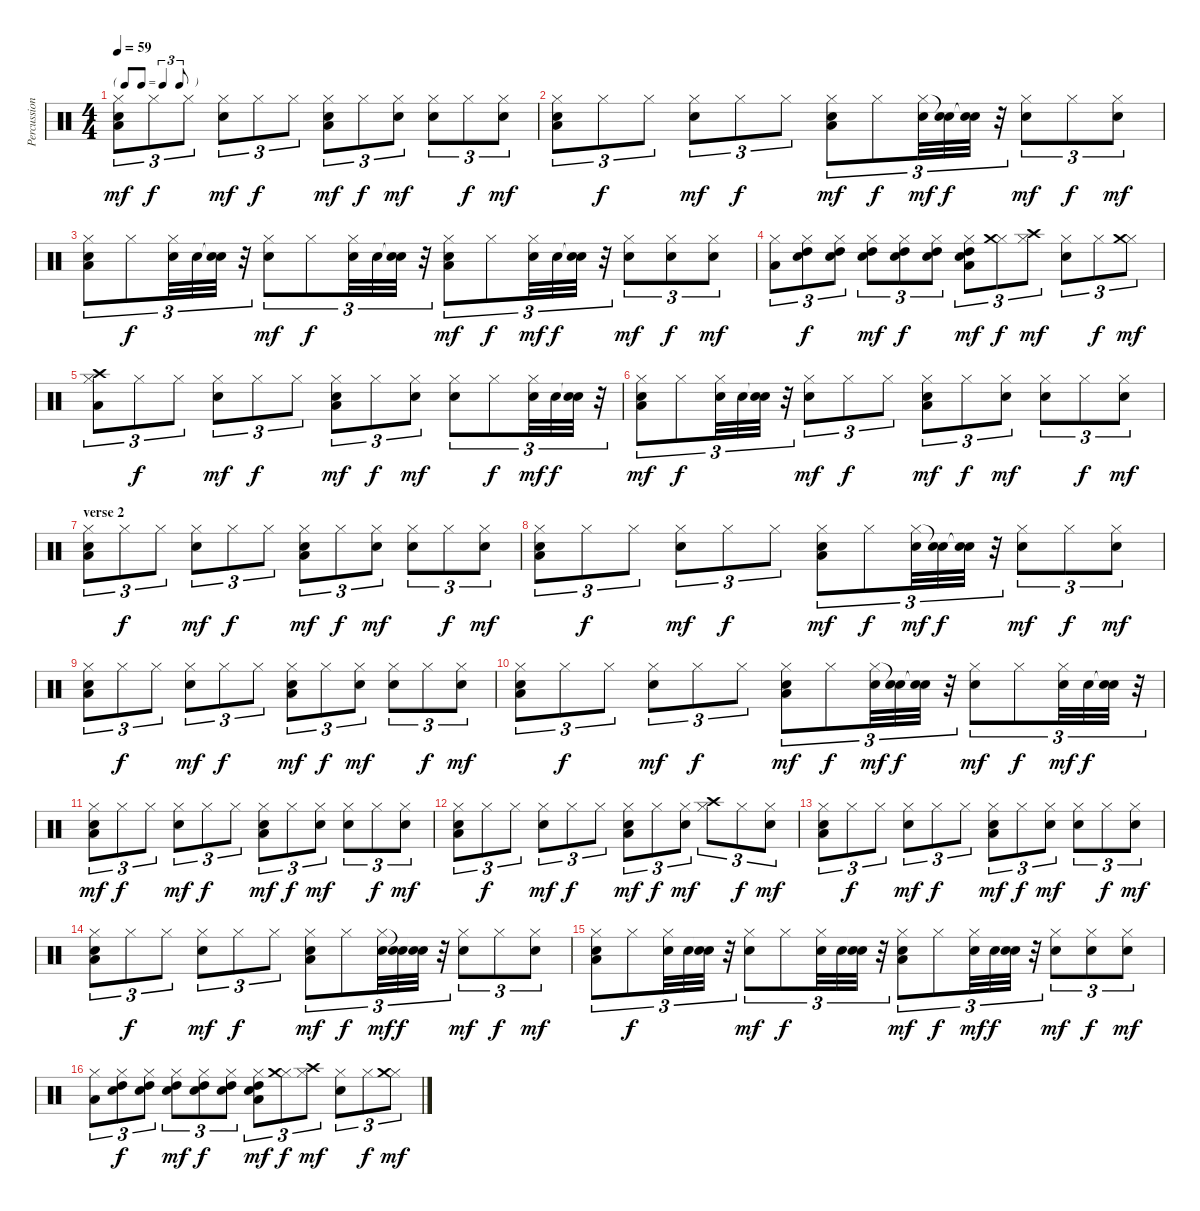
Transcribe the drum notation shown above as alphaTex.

\track ("Percussions (Billasse)" "Percussion") {instrument percussion}
\staff {score}
\articulation defaults
\ts (4 4)
\tf triplet8th
\tempo 59
\clef neutral
\ks c
("Hi-Hat (closed)" "Low Floor Tom (hit)" "Electric Snare (hit)").8{tu (3 2) dy mf} "Hi-Hat (closed)".8{tu (3 2) dy f} "Hi-Hat (closed)".8{tu (3 2)} ("Hi-Hat (closed)" "Electric Snare (hit)").8{tu (3 2) dy mf} "Hi-Hat (closed)".8{tu (3 2) dy f} "Hi-Hat (closed)".8{tu (3 2)} ("Hi-Hat (closed)" "Low Floor Tom (hit)" "Electric Snare (hit)").8{tu (3 2) dy mf} "Hi-Hat (closed)".8{tu (3 2) dy f} ("Hi-Hat (closed)" "Electric Snare (hit)").8{tu (3 2) dy mf} ("Hi-Hat (closed)" "Electric Snare (hit)").8{tu (3 2)} "Hi-Hat (closed)".8{tu (3 2) dy f} ("Hi-Hat (closed)" "Electric Snare (hit)").8{tu (3 2) dy mf} |
("Hi-Hat (closed)" "Low Floor Tom (hit)" "Electric Snare (hit)").8{tu (3 2)} "Hi-Hat (closed)".8{tu (3 2) dy f} "Hi-Hat (closed)".8{tu (3 2)} ("Hi-Hat (closed)" "Electric Snare (hit)").8{tu (3 2) dy mf} "Hi-Hat (closed)".8{tu (3 2) dy f} "Hi-Hat (closed)".8{tu (3 2)} ("Hi-Hat (closed)" "Low Floor Tom (hit)" "Electric Snare (hit)").8{tu (3 2) dy mf} "Hi-Hat (closed)".8{tu (3 2) dy f} ("Hi-Hat (closed)" "Electric Snare (hit)").32{tu (3 2) dy mf} ("Snare (hit)"{t} "Electric Snare (hit)").32{tu (3 2) dy f} ("Snare (hit)"{t} "Electric Snare (hit)").32{tu (3 2)} r.32{tu (3 2)} ("Hi-Hat (closed)" "Electric Snare (hit)").8{tu (3 2) dy mf} "Hi-Hat (closed)".8{tu (3 2) dy f} ("Hi-Hat (closed)" "Electric Snare (hit)").8{tu (3 2) dy mf} |
("Hi-Hat (closed)" "Low Floor Tom (hit)" "Electric Snare (hit)").8{tu (3 2)} "Hi-Hat (closed)".8{tu (3 2) dy f} ("Hi-Hat (closed)" "Electric Snare (hit)").32{tu (3 2)} "Electric Snare (hit)".32{tu (3 2)} ("Snare (hit)"{t} "Electric Snare (hit)").32{tu (3 2)} r.32{tu (3 2)} ("Hi-Hat (closed)" "Electric Snare (hit)").8{tu (3 2) dy mf} "Hi-Hat (closed)".8{tu (3 2) dy f} ("Hi-Hat (closed)" "Electric Snare (hit)").32{tu (3 2)} "Electric Snare (hit)".32{tu (3 2)} ("Snare (hit)"{t} "Electric Snare (hit)").32{tu (3 2)} r.32{tu (3 2)} ("Hi-Hat (closed)" "Low Floor Tom (hit)" "Electric Snare (hit)").8{tu (3 2) dy mf} "Hi-Hat (closed)".8{tu (3 2) dy f} ("Hi-Hat (closed)" "Electric Snare (hit)").32{tu (3 2) dy mf} "Electric Snare (hit)".32{tu (3 2) dy f} ("Snare (hit)"{t} "Electric Snare (hit)").32{tu (3 2)} r.32{tu (3 2)} ("Hi-Hat (closed)" "Electric Snare (hit)").8{tu (3 2) dy mf} ("Hi-Hat (closed)" "Electric Snare (hit)").8{tu (3 2) dy f} ("Hi-Hat (closed)" "Electric Snare (hit)").8{tu (3 2) dy mf} |
("Hi-Hat (closed)" "Low Floor Tom (hit)").8{tu (3 2)} ("Hi-Hat (closed)" "Electric Snare (hit)" "High Tom (hit)").8{tu (3 2) dy f} ("Hi-Hat (closed)" "Electric Snare (hit)" "High Tom (hit)").8{tu (3 2)} ("Hi-Hat (closed)" "Electric Snare (hit)" "High Tom (hit)").8{tu (3 2) dy mf} ("Hi-Hat (closed)" "Electric Snare (hit)" "High Tom (hit)").8{tu (3 2) dy f} ("Hi-Hat (closed)" "Electric Snare (hit)" "High Tom (hit)").8{tu (3 2)} ("Hi-Hat (closed)" "Low Floor Tom (hit)" "Electric Snare (hit)" "High Tom (hit)").8{tu (3 2) dy mf} ("Hi-Hat (closed)" "Crash medium (hit)").8{tu (3 2) dy f} ("Hi-Hat (closed)" "Crash high (hit)").8{tu (3 2) dy mf} ("Hi-Hat (closed)" "Electric Snare (hit)").8{tu (3 2)} "Hi-Hat (closed)".8{tu (3 2) dy f} ("Hi-Hat (closed)" "Crash medium (hit)").8{tu (3 2) dy mf} |
("Hi-Hat (closed)" "Low Floor Tom (hit)" "Crash high (hit)").8{tu (3 2)} "Hi-Hat (closed)".8{tu (3 2) dy f} "Hi-Hat (closed)".8{tu (3 2)} ("Hi-Hat (closed)" "Electric Snare (hit)").8{tu (3 2) dy mf} "Hi-Hat (closed)".8{tu (3 2) dy f} "Hi-Hat (closed)".8{tu (3 2)} ("Hi-Hat (closed)" "Low Floor Tom (hit)" "Electric Snare (hit)").8{tu (3 2) dy mf} "Hi-Hat (closed)".8{tu (3 2) dy f} ("Hi-Hat (closed)" "Electric Snare (hit)").8{tu (3 2) dy mf} ("Hi-Hat (closed)" "Electric Snare (hit)").8{tu (3 2)} "Hi-Hat (closed)".8{tu (3 2) dy f} ("Hi-Hat (closed)" "Electric Snare (hit)").32{tu (3 2) dy mf} "Electric Snare (hit)".32{tu (3 2) dy f} ("Snare (hit)"{t} "Electric Snare (hit)").32{tu (3 2)} r.32{tu (3 2)} |
("Hi-Hat (closed)" "Low Floor Tom (hit)" "Electric Snare (hit)").8{tu (3 2) dy mf} "Hi-Hat (closed)".8{tu (3 2) dy f} ("Hi-Hat (closed)" "Electric Snare (hit)").32{tu (3 2)} "Electric Snare (hit)".32{tu (3 2)} ("Snare (hit)"{t} "Electric Snare (hit)").32{tu (3 2)} r.32{tu (3 2)} ("Hi-Hat (closed)" "Electric Snare (hit)").8{tu (3 2) dy mf} "Hi-Hat (closed)".8{tu (3 2) dy f} "Hi-Hat (closed)".8{tu (3 2)} ("Hi-Hat (closed)" "Low Floor Tom (hit)" "Electric Snare (hit)").8{tu (3 2) dy mf} "Hi-Hat (closed)".8{tu (3 2) dy f} ("Hi-Hat (closed)" "Electric Snare (hit)").8{tu (3 2) dy mf} ("Hi-Hat (closed)" "Electric Snare (hit)").8{tu (3 2)} "Hi-Hat (closed)".8{tu (3 2) dy f} ("Hi-Hat (closed)" "Electric Snare (hit)").8{tu (3 2) dy mf} |
\section ("" "verse 2")
("Hi-Hat (closed)" "Low Floor Tom (hit)" "Electric Snare (hit)").8{tu (3 2)} "Hi-Hat (closed)".8{tu (3 2) dy f} "Hi-Hat (closed)".8{tu (3 2)} ("Hi-Hat (closed)" "Electric Snare (hit)").8{tu (3 2) dy mf} "Hi-Hat (closed)".8{tu (3 2) dy f} "Hi-Hat (closed)".8{tu (3 2)} ("Hi-Hat (closed)" "Low Floor Tom (hit)" "Electric Snare (hit)").8{tu (3 2) dy mf} "Hi-Hat (closed)".8{tu (3 2) dy f} ("Hi-Hat (closed)" "Electric Snare (hit)").8{tu (3 2) dy mf} ("Hi-Hat (closed)" "Electric Snare (hit)").8{tu (3 2)} "Hi-Hat (closed)".8{tu (3 2) dy f} ("Hi-Hat (closed)" "Electric Snare (hit)").8{tu (3 2) dy mf} |
("Hi-Hat (closed)" "Low Floor Tom (hit)" "Electric Snare (hit)").8{tu (3 2)} "Hi-Hat (closed)".8{tu (3 2) dy f} "Hi-Hat (closed)".8{tu (3 2)} ("Hi-Hat (closed)" "Electric Snare (hit)").8{tu (3 2) dy mf} "Hi-Hat (closed)".8{tu (3 2) dy f} "Hi-Hat (closed)".8{tu (3 2)} ("Hi-Hat (closed)" "Low Floor Tom (hit)" "Electric Snare (hit)").8{tu (3 2) dy mf} "Hi-Hat (closed)".8{tu (3 2) dy f} ("Hi-Hat (closed)" "Electric Snare (hit)").32{tu (3 2) dy mf} ("Snare (hit)"{t} "Electric Snare (hit)").32{tu (3 2) dy f} ("Snare (hit)"{t} "Electric Snare (hit)").32{tu (3 2)} r.32{tu (3 2)} ("Hi-Hat (closed)" "Electric Snare (hit)").8{tu (3 2) dy mf} "Hi-Hat (closed)".8{tu (3 2) dy f} ("Hi-Hat (closed)" "Electric Snare (hit)").8{tu (3 2) dy mf} |
("Hi-Hat (closed)" "Low Floor Tom (hit)" "Electric Snare (hit)").8{tu (3 2)} "Hi-Hat (closed)".8{tu (3 2) dy f} "Hi-Hat (closed)".8{tu (3 2)} ("Hi-Hat (closed)" "Electric Snare (hit)").8{tu (3 2) dy mf} "Hi-Hat (closed)".8{tu (3 2) dy f} "Hi-Hat (closed)".8{tu (3 2)} ("Hi-Hat (closed)" "Low Floor Tom (hit)" "Electric Snare (hit)").8{tu (3 2) dy mf} "Hi-Hat (closed)".8{tu (3 2) dy f} ("Hi-Hat (closed)" "Electric Snare (hit)").8{tu (3 2) dy mf} ("Hi-Hat (closed)" "Electric Snare (hit)").8{tu (3 2)} "Hi-Hat (closed)".8{tu (3 2) dy f} ("Hi-Hat (closed)" "Electric Snare (hit)").8{tu (3 2) dy mf} |
("Hi-Hat (closed)" "Low Floor Tom (hit)" "Electric Snare (hit)").8{tu (3 2)} "Hi-Hat (closed)".8{tu (3 2) dy f} "Hi-Hat (closed)".8{tu (3 2)} ("Hi-Hat (closed)" "Electric Snare (hit)").8{tu (3 2) dy mf} "Hi-Hat (closed)".8{tu (3 2) dy f} "Hi-Hat (closed)".8{tu (3 2)} ("Hi-Hat (closed)" "Low Floor Tom (hit)" "Electric Snare (hit)").8{tu (3 2) dy mf} "Hi-Hat (closed)".8{tu (3 2) dy f} ("Hi-Hat (closed)" "Electric Snare (hit)").32{tu (3 2) dy mf} ("Snare (hit)"{t} "Electric Snare (hit)").32{tu (3 2) dy f} ("Snare (hit)"{t} "Electric Snare (hit)").32{tu (3 2)} r.32{tu (3 2)} ("Hi-Hat (closed)" "Electric Snare (hit)").8{tu (3 2) dy mf} "Hi-Hat (closed)".8{tu (3 2) dy f} ("Hi-Hat (closed)" "Electric Snare (hit)").32{tu (3 2) dy mf} "Electric Snare (hit)".32{tu (3 2) dy f} ("Snare (hit)"{t} "Electric Snare (hit)").32{tu (3 2)} r.32{tu (3 2)} |
("Hi-Hat (closed)" "Low Floor Tom (hit)" "Electric Snare (hit)").8{tu (3 2) dy mf} "Hi-Hat (closed)".8{tu (3 2) dy f} "Hi-Hat (closed)".8{tu (3 2)} ("Hi-Hat (closed)" "Electric Snare (hit)").8{tu (3 2) dy mf} "Hi-Hat (closed)".8{tu (3 2) dy f} "Hi-Hat (closed)".8{tu (3 2)} ("Hi-Hat (closed)" "Low Floor Tom (hit)" "Electric Snare (hit)").8{tu (3 2) dy mf} "Hi-Hat (closed)".8{tu (3 2) dy f} ("Hi-Hat (closed)" "Electric Snare (hit)").8{tu (3 2) dy mf} ("Hi-Hat (closed)" "Electric Snare (hit)").8{tu (3 2)} "Hi-Hat (closed)".8{tu (3 2) dy f} ("Hi-Hat (closed)" "Electric Snare (hit)").8{tu (3 2) dy mf} |
("Hi-Hat (closed)" "Low Floor Tom (hit)" "Electric Snare (hit)").8{tu (3 2)} "Hi-Hat (closed)".8{tu (3 2) dy f} "Hi-Hat (closed)".8{tu (3 2)} ("Hi-Hat (closed)" "Electric Snare (hit)").8{tu (3 2) dy mf} "Hi-Hat (closed)".8{tu (3 2) dy f} "Hi-Hat (closed)".8{tu (3 2)} ("Hi-Hat (closed)" "Low Floor Tom (hit)" "Electric Snare (hit)").8{tu (3 2) dy mf} "Hi-Hat (closed)".8{tu (3 2) dy f} ("Hi-Hat (closed)" "Electric Snare (hit)").8{tu (3 2) dy mf} ("Hi-Hat (closed)" "Crash high (hit)").8{tu (3 2)} "Hi-Hat (closed)".8{tu (3 2) dy f} ("Hi-Hat (closed)" "Electric Snare (hit)").8{tu (3 2) dy mf} |
("Hi-Hat (closed)" "Low Floor Tom (hit)" "Electric Snare (hit)").8{tu (3 2)} "Hi-Hat (closed)".8{tu (3 2) dy f} "Hi-Hat (closed)".8{tu (3 2)} ("Hi-Hat (closed)" "Electric Snare (hit)").8{tu (3 2) dy mf} "Hi-Hat (closed)".8{tu (3 2) dy f} "Hi-Hat (closed)".8{tu (3 2)} ("Hi-Hat (closed)" "Low Floor Tom (hit)" "Electric Snare (hit)").8{tu (3 2) dy mf} "Hi-Hat (closed)".8{tu (3 2) dy f} ("Hi-Hat (closed)" "Electric Snare (hit)").8{tu (3 2) dy mf} ("Hi-Hat (closed)" "Electric Snare (hit)").8{tu (3 2)} "Hi-Hat (closed)".8{tu (3 2) dy f} ("Hi-Hat (closed)" "Electric Snare (hit)").8{tu (3 2) dy mf} |
("Hi-Hat (closed)" "Low Floor Tom (hit)" "Electric Snare (hit)").8{tu (3 2)} "Hi-Hat (closed)".8{tu (3 2) dy f} "Hi-Hat (closed)".8{tu (3 2)} ("Hi-Hat (closed)" "Electric Snare (hit)").8{tu (3 2) dy mf} "Hi-Hat (closed)".8{tu (3 2) dy f} "Hi-Hat (closed)".8{tu (3 2)} ("Hi-Hat (closed)" "Low Floor Tom (hit)" "Electric Snare (hit)").8{tu (3 2) dy mf} "Hi-Hat (closed)".8{tu (3 2) dy f} ("Hi-Hat (closed)" "Electric Snare (hit)").32{tu (3 2) dy mf} ("Snare (hit)"{t} "Electric Snare (hit)").32{tu (3 2) dy f} ("Snare (hit)"{t} "Electric Snare (hit)").32{tu (3 2)} r.32{tu (3 2)} ("Hi-Hat (closed)" "Electric Snare (hit)").8{tu (3 2) dy mf} "Hi-Hat (closed)".8{tu (3 2) dy f} ("Hi-Hat (closed)" "Electric Snare (hit)").8{tu (3 2) dy mf} |
("Hi-Hat (closed)" "Low Floor Tom (hit)" "Electric Snare (hit)").8{tu (3 2)} "Hi-Hat (closed)".8{tu (3 2) dy f} ("Hi-Hat (closed)" "Electric Snare (hit)").32{tu (3 2)} "Electric Snare (hit)".32{tu (3 2)} ("Snare (hit)"{t} "Electric Snare (hit)").32{tu (3 2)} r.32{tu (3 2)} ("Hi-Hat (closed)" "Electric Snare (hit)").8{tu (3 2) dy mf} "Hi-Hat (closed)".8{tu (3 2) dy f} ("Hi-Hat (closed)" "Electric Snare (hit)").32{tu (3 2)} "Electric Snare (hit)".32{tu (3 2)} ("Snare (hit)"{t} "Electric Snare (hit)").32{tu (3 2)} r.32{tu (3 2)} ("Hi-Hat (closed)" "Low Floor Tom (hit)" "Electric Snare (hit)").8{tu (3 2) dy mf} "Hi-Hat (closed)".8{tu (3 2) dy f} ("Hi-Hat (closed)" "Electric Snare (hit)").32{tu (3 2) dy mf} "Electric Snare (hit)".32{tu (3 2) dy f} ("Snare (hit)"{t} "Electric Snare (hit)").32{tu (3 2)} r.32{tu (3 2)} ("Hi-Hat (closed)" "Electric Snare (hit)").8{tu (3 2) dy mf} ("Hi-Hat (closed)" "Electric Snare (hit)").8{tu (3 2) dy f} ("Hi-Hat (closed)" "Electric Snare (hit)").8{tu (3 2) dy mf} |
("Hi-Hat (closed)" "Low Floor Tom (hit)").8{tu (3 2)} ("Hi-Hat (closed)" "Electric Snare (hit)" "High Tom (hit)").8{tu (3 2) dy f} ("Hi-Hat (closed)" "Electric Snare (hit)" "High Tom (hit)").8{tu (3 2)} ("Hi-Hat (closed)" "Electric Snare (hit)" "High Tom (hit)").8{tu (3 2) dy mf} ("Hi-Hat (closed)" "Electric Snare (hit)" "High Tom (hit)").8{tu (3 2) dy f} ("Hi-Hat (closed)" "Electric Snare (hit)" "High Tom (hit)").8{tu (3 2)} ("Hi-Hat (closed)" "Low Floor Tom (hit)" "Electric Snare (hit)" "High Tom (hit)").8{tu (3 2) dy mf} ("Hi-Hat (closed)" "Crash medium (hit)").8{tu (3 2) dy f} ("Hi-Hat (closed)" "Crash high (hit)").8{tu (3 2) dy mf} ("Hi-Hat (closed)" "Electric Snare (hit)").8{tu (3 2)} "Hi-Hat (closed)".8{tu (3 2) dy f} ("Hi-Hat (closed)" "Crash medium (hit)").8{tu (3 2) dy mf}
